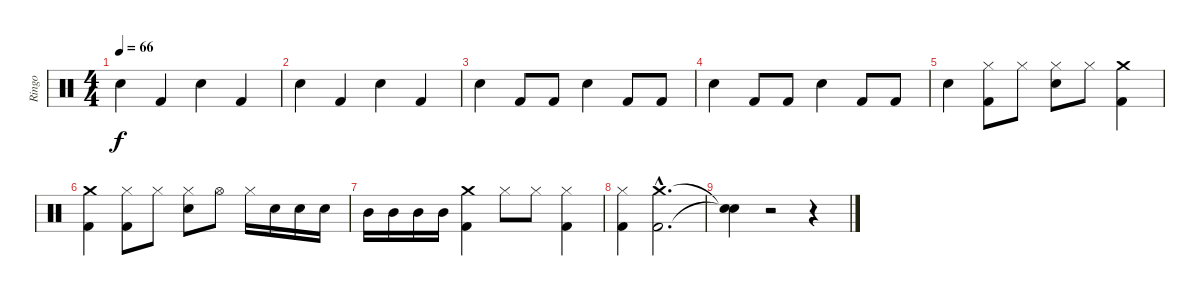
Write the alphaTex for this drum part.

\track ("Ringo" "Ringo") {instrument percussion}
\staff {score}
\articulation defaults
\ts (4 4)
\tempo 66
\clef neutral
\ks c "Snare (hit) 2".4{dy f} "Kick (hit) 2".4 "Snare (hit) 2".4 "Kick (hit) 2".4
|
"Snare (hit) 2".4 "Kick (hit) 2".4 "Snare (hit) 2".4 "Kick (hit) 2".4 |
"Snare (hit) 2".4 "Kick (hit) 2".8 "Kick (hit) 2".8 "Snare (hit) 2".4 "Kick (hit) 2".8 "Kick (hit) 2".8 |
"Snare (hit) 2".4 "Kick (hit) 2".8 "Kick (hit) 2".8 "Snare (hit) 2".4 "Kick (hit) 2".8 "Kick (hit) 2".8 |
"Snare (hit) 2".4 ("Hi-Hat (closed)" "Kick (hit) 2").8 "Hi-Hat (closed)".8 ("Hi-Hat (closed)" "Snare (hit) 2").8 "Hi-Hat (closed)".8 ("Crash medium (hit)" "Kick (hit) 2").4 |
("Crash medium (hit)" "Kick (hit) 2").4 ("Hi-Hat (closed)" "Kick (hit) 2").8 "Hi-Hat (closed)".8 ("Hi-Hat (closed)" "Snare (hit) 2").8 "Hi-Hat (open)".8 "Hi-Hat (closed)".16 "Snare (hit) 2".16 "Snare (hit) 2".16 "Snare (hit) 2".16 |
"Mid Tom (hit)".16 "Mid Tom (hit)".16 "Mid Tom (hit)".16 "Mid Tom (hit)".16 ("Crash medium (hit)" "Kick (hit) 2").4 "Hi-Hat (closed)".8 "Hi-Hat (closed)".8 ("Hi-Hat (closed)" "Kick (hit) 2").4 |
("Hi-Hat (closed)" "Kick (hit) 2").4 ("Crash medium (hit)"{hac} "Kick (hit) 2"{hac}).2{d} |
("Snare (hit)"{t} "Snare (hit)"{t}).4 r.2 r.4
